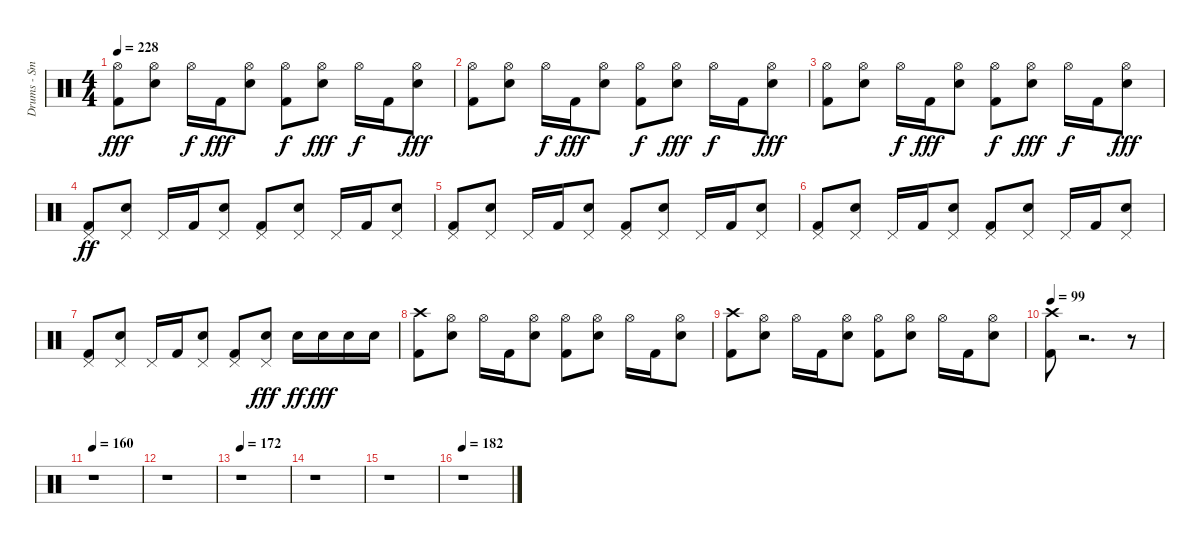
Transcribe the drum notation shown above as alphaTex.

\track ("Drums - Smelly" "Drums - Sm") {instrument percussion}
\staff {score}
\articulation defaults
\ts (4 4)
\tempo 228
\clef neutral
\ks c
("Hi-Hat (open)" "Kick (hit) 2").8{dy fff} ("Hi-Hat (open)" "Electric Snare (hit)").8 "Hi-Hat (open)".16{dy f} "Kick (hit) 2".16{dy fff} ("Hi-Hat (open)" "Electric Snare (hit)").8 ("Hi-Hat (open)" "Kick (hit) 2").8{dy f} ("Hi-Hat (open)" "Electric Snare (hit)").8{dy fff} "Hi-Hat (open)".16{dy f} "Kick (hit) 2".16 ("Hi-Hat (open)" "Electric Snare (hit)").8{dy fff} |
("Hi-Hat (open)" "Kick (hit) 2").8 ("Hi-Hat (open)" "Electric Snare (hit)").8 "Hi-Hat (open)".16{dy f} "Kick (hit) 2".16{dy fff} ("Hi-Hat (open)" "Electric Snare (hit)").8 ("Hi-Hat (open)" "Kick (hit) 2").8{dy f} ("Hi-Hat (open)" "Electric Snare (hit)").8{dy fff} "Hi-Hat (open)".16{dy f} "Kick (hit) 2".16 ("Hi-Hat (open)" "Electric Snare (hit)").8{dy fff} |
("Hi-Hat (open)" "Kick (hit) 2").8 ("Hi-Hat (open)" "Electric Snare (hit)").8 "Hi-Hat (open)".16{dy f} "Kick (hit) 2".16{dy fff} ("Hi-Hat (open)" "Electric Snare (hit)").8 ("Hi-Hat (open)" "Kick (hit) 2").8{dy f} ("Hi-Hat (open)" "Electric Snare (hit)").8{dy fff} "Hi-Hat (open)".16{dy f} "Kick (hit) 2".16 ("Hi-Hat (open)" "Electric Snare (hit)").8{dy fff} |
("Kick (hit) 2" "Pedal Hi-Hat (hit)").8{dy ff} ("Electric Snare (hit)" "Pedal Hi-Hat (hit)").8 "Pedal Hi-Hat (hit)".16 "Kick (hit) 2".16 ("Electric Snare (hit)" "Pedal Hi-Hat (hit)").8 ("Pedal Hi-Hat (hit)" "Kick (hit) 2").8 ("Pedal Hi-Hat (hit)" "Electric Snare (hit)").8 "Pedal Hi-Hat (hit)".16 "Kick (hit) 2".16 ("Electric Snare (hit)" "Pedal Hi-Hat (hit)").8 |
("Kick (hit) 2" "Pedal Hi-Hat (hit)").8 ("Electric Snare (hit)" "Pedal Hi-Hat (hit)").8 "Pedal Hi-Hat (hit)".16 "Kick (hit) 2".16 ("Electric Snare (hit)" "Pedal Hi-Hat (hit)").8 ("Kick (hit) 2" "Pedal Hi-Hat (hit)").8 ("Electric Snare (hit)" "Pedal Hi-Hat (hit)").8 "Pedal Hi-Hat (hit)".16 "Kick (hit) 2".16 ("Electric Snare (hit)" "Pedal Hi-Hat (hit)").8 |
("Kick (hit) 2" "Pedal Hi-Hat (hit)").8 ("Electric Snare (hit)" "Pedal Hi-Hat (hit)").8 "Pedal Hi-Hat (hit)".16 "Kick (hit) 2".16 ("Electric Snare (hit)" "Pedal Hi-Hat (hit)").8 ("Kick (hit) 2" "Pedal Hi-Hat (hit)").8 ("Electric Snare (hit)" "Pedal Hi-Hat (hit)").8 "Pedal Hi-Hat (hit)".16 "Kick (hit) 2".16 ("Electric Snare (hit)" "Pedal Hi-Hat (hit)").8 |
("Kick (hit) 2" "Pedal Hi-Hat (hit)").8 ("Electric Snare (hit)" "Pedal Hi-Hat (hit)").8 "Pedal Hi-Hat (hit)".16 "Kick (hit) 2".16 ("Electric Snare (hit)" "Pedal Hi-Hat (hit)").8 ("Kick (hit) 2" "Pedal Hi-Hat (hit)").8 ("Electric Snare (hit)" "Pedal Hi-Hat (hit)").8{dy fff} "Electric Snare (hit)".16{dy ff} "Electric Snare (hit)".16{dy fff} "Electric Snare (hit)".16 "Electric Snare (hit)".16 |
("Crash high (hit)" "Kick (hit) 2").8 ("Hi-Hat (open)" "Electric Snare (hit)").8 "Hi-Hat (open)".16 "Kick (hit) 2".16 ("Hi-Hat (open)" "Electric Snare (hit)").8 ("Hi-Hat (open)" "Kick (hit) 2").8 ("Hi-Hat (open)" "Electric Snare (hit)").8 "Hi-Hat (open)".16 "Kick (hit) 2".16 ("Hi-Hat (open)" "Electric Snare (hit)").8 |
("Crash high (hit)" "Kick (hit) 2").8 ("Hi-Hat (open)" "Electric Snare (hit)").8 "Hi-Hat (open)".16 "Kick (hit) 2".16 ("Hi-Hat (open)" "Electric Snare (hit)").8 ("Hi-Hat (open)" "Kick (hit) 2").8 ("Hi-Hat (open)" "Electric Snare (hit)").8 "Hi-Hat (open)".16 "Kick (hit) 2".16 ("Hi-Hat (open)" "Electric Snare (hit)").8 |
\tempo 99
("Crash high (hit)" "Kick (hit) 2").8 r.2{d} r.8 |
\tempo 160
r.1 |
r.1 |
\tempo 172
r.1 |
r.1 |
r.1 |
\tempo 182
r.1
